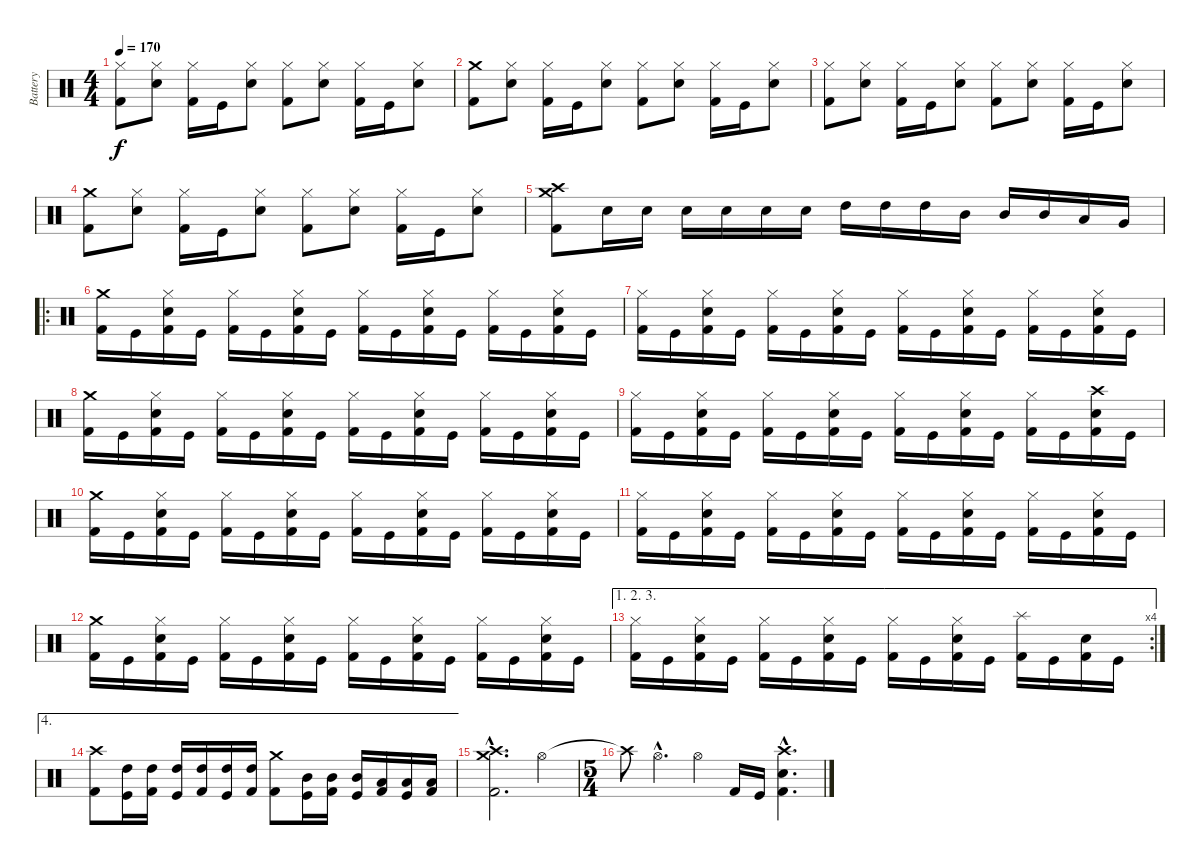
\track ("Battery" "Battery") {instrument percussion}
\staff {score}
\articulation defaults
\ts (4 4)
\tempo 170
\clef neutral
\ks c
("Hi-Hat (closed)" "Kick (hit) 2").8{dy f} ("Hi-Hat (closed)" "Snare (hit) 2").8 ("Hi-Hat (closed)" "Kick (hit) 2").16 "Kick (hit)".16 ("Hi-Hat (closed)" "Snare (hit) 2").8 ("Hi-Hat (closed)" "Kick (hit) 2").8 ("Hi-Hat (closed)" "Snare (hit) 2").8 ("Hi-Hat (closed)" "Kick (hit) 2").16 "Kick (hit)".16 ("Hi-Hat (closed)" "Snare (hit) 2").8 |
("Crash medium (hit)" "Kick (hit) 2").8 ("Hi-Hat (closed)" "Snare (hit) 2").8 ("Hi-Hat (closed)" "Kick (hit) 2").16 "Kick (hit)".16 ("Hi-Hat (closed)" "Snare (hit) 2").8 ("Hi-Hat (closed)" "Kick (hit) 2").8 ("Hi-Hat (closed)" "Snare (hit) 2").8 ("Hi-Hat (closed)" "Kick (hit) 2").16 "Kick (hit)".16 ("Hi-Hat (closed)" "Snare (hit) 2").8 |
("Hi-Hat (closed)" "Kick (hit) 2").8 ("Hi-Hat (closed)" "Snare (hit) 2").8 ("Hi-Hat (closed)" "Kick (hit) 2").16 "Kick (hit)".16 ("Hi-Hat (closed)" "Snare (hit) 2").8 ("Hi-Hat (closed)" "Kick (hit) 2").8 ("Hi-Hat (closed)" "Snare (hit) 2").8 ("Hi-Hat (closed)" "Kick (hit) 2").16 "Kick (hit)".16 ("Hi-Hat (closed)" "Snare (hit) 2").8 |
("Crash medium (hit)" "Kick (hit) 2").8 ("Hi-Hat (closed)" "Snare (hit) 2").8 ("Hi-Hat (closed)" "Kick (hit) 2").16 "Kick (hit)".16 ("Hi-Hat (closed)" "Snare (hit) 2").8 ("Hi-Hat (closed)" "Kick (hit) 2").8 ("Hi-Hat (closed)" "Snare (hit) 2").8 ("Hi-Hat (closed)" "Kick (hit) 2").16 "Kick (hit)".16 ("Hi-Hat (closed)" "Snare (hit) 2").8 |
("Crash high (hit)" "Crash medium (hit)" "Kick (hit) 2").8 "Snare (hit) 2".16 "Snare (hit) 2".16 "Snare (hit) 2".16 "Snare (hit) 2".16 "Snare (hit) 2".16 "Snare (hit) 2".16 "High Tom (hit)".16 "High Tom (hit)".16 "High Tom (hit)".16 "Mid Tom (hit)".16 "Mid Tom (hit)".16 "Mid Tom (hit)".16 "Low Tom (hit)".16 "Very Low Tom (hit)".16 |
\ro
("Crash medium (hit)" "Kick (hit) 2").16 "Kick (hit)".16 ("Hi-Hat (closed)" "Snare (hit) 2" "Kick (hit) 2").16 "Kick (hit)".16 ("Hi-Hat (closed)" "Kick (hit) 2").16 "Kick (hit)".16 ("Hi-Hat (closed)" "Snare (hit) 2" "Kick (hit) 2").16 "Kick (hit)".16 ("Hi-Hat (closed)" "Kick (hit) 2").16 "Kick (hit)".16 ("Hi-Hat (closed)" "Snare (hit) 2" "Kick (hit) 2").16 "Kick (hit)".16 ("Hi-Hat (closed)" "Kick (hit) 2").16 "Kick (hit)".16 ("Hi-Hat (closed)" "Snare (hit) 2" "Kick (hit) 2").16 "Kick (hit)".16 |
("Hi-Hat (closed)" "Kick (hit) 2").16 "Kick (hit)".16 ("Hi-Hat (closed)" "Snare (hit) 2" "Kick (hit) 2").16 "Kick (hit)".16 ("Hi-Hat (closed)" "Kick (hit) 2").16 "Kick (hit)".16 ("Hi-Hat (closed)" "Snare (hit) 2" "Kick (hit) 2").16 "Kick (hit)".16 ("Hi-Hat (closed)" "Kick (hit) 2").16 "Kick (hit)".16 ("Hi-Hat (closed)" "Snare (hit) 2" "Kick (hit) 2").16 "Kick (hit)".16 ("Hi-Hat (closed)" "Kick (hit) 2").16 "Kick (hit)".16 ("Hi-Hat (closed)" "Snare (hit) 2" "Kick (hit) 2").16 "Kick (hit)".16 |
("Crash medium (hit)" "Kick (hit) 2").16 "Kick (hit)".16 ("Hi-Hat (closed)" "Snare (hit) 2" "Kick (hit) 2").16 "Kick (hit)".16 ("Hi-Hat (closed)" "Kick (hit) 2").16 "Kick (hit)".16 ("Hi-Hat (closed)" "Snare (hit) 2" "Kick (hit) 2").16 "Kick (hit)".16 ("Hi-Hat (closed)" "Kick (hit) 2").16 "Kick (hit)".16 ("Hi-Hat (closed)" "Snare (hit) 2" "Kick (hit) 2").16 "Kick (hit)".16 ("Hi-Hat (closed)" "Kick (hit) 2").16 "Kick (hit)".16 ("Hi-Hat (closed)" "Snare (hit) 2" "Kick (hit) 2").16 "Kick (hit)".16 |
("Hi-Hat (closed)" "Kick (hit) 2").16 "Kick (hit)".16 ("Hi-Hat (closed)" "Snare (hit) 2" "Kick (hit) 2").16 "Kick (hit)".16 ("Hi-Hat (closed)" "Kick (hit) 2").16 "Kick (hit)".16 ("Hi-Hat (closed)" "Snare (hit) 2" "Kick (hit) 2").16 "Kick (hit)".16 ("Hi-Hat (closed)" "Kick (hit) 2").16 "Kick (hit)".16 ("Hi-Hat (closed)" "Snare (hit) 2" "Kick (hit) 2").16 "Kick (hit)".16 ("Hi-Hat (closed)" "Kick (hit) 2").16 "Kick (hit)".16 ("Crash high (hit)" "Snare (hit) 2" "Kick (hit) 2").16 "Kick (hit)".16 |
("Crash medium (hit)" "Kick (hit) 2").16 "Kick (hit)".16 ("Hi-Hat (closed)" "Snare (hit) 2" "Kick (hit) 2").16 "Kick (hit)".16 ("Hi-Hat (closed)" "Kick (hit) 2").16 "Kick (hit)".16 ("Hi-Hat (closed)" "Snare (hit) 2" "Kick (hit) 2").16 "Kick (hit)".16 ("Hi-Hat (closed)" "Kick (hit) 2").16 "Kick (hit)".16 ("Hi-Hat (closed)" "Snare (hit) 2" "Kick (hit) 2").16 "Kick (hit)".16 ("Hi-Hat (closed)" "Kick (hit) 2").16 "Kick (hit)".16 ("Hi-Hat (closed)" "Snare (hit) 2" "Kick (hit) 2").16 "Kick (hit)".16 |
("Hi-Hat (closed)" "Kick (hit) 2").16 "Kick (hit)".16 ("Hi-Hat (closed)" "Snare (hit) 2" "Kick (hit) 2").16 "Kick (hit)".16 ("Hi-Hat (closed)" "Kick (hit) 2").16 "Kick (hit)".16 ("Hi-Hat (closed)" "Snare (hit) 2" "Kick (hit) 2").16 "Kick (hit)".16 ("Hi-Hat (closed)" "Kick (hit) 2").16 "Kick (hit)".16 ("Hi-Hat (closed)" "Snare (hit) 2" "Kick (hit) 2").16 "Kick (hit)".16 ("Hi-Hat (closed)" "Kick (hit) 2").16 "Kick (hit)".16 ("Hi-Hat (closed)" "Snare (hit) 2" "Kick (hit) 2").16 "Kick (hit)".16 |
("Crash medium (hit)" "Kick (hit) 2").16 "Kick (hit)".16 ("Hi-Hat (closed)" "Snare (hit) 2" "Kick (hit) 2").16 "Kick (hit)".16 ("Hi-Hat (closed)" "Kick (hit) 2").16 "Kick (hit)".16 ("Hi-Hat (closed)" "Snare (hit) 2" "Kick (hit) 2").16 "Kick (hit)".16 ("Hi-Hat (closed)" "Kick (hit) 2").16 "Kick (hit)".16 ("Hi-Hat (closed)" "Snare (hit) 2" "Kick (hit) 2").16 "Kick (hit)".16 ("Hi-Hat (closed)" "Kick (hit) 2").16 "Kick (hit)".16 ("Hi-Hat (closed)" "Snare (hit) 2" "Kick (hit) 2").16 "Kick (hit)".16 |
\ae (1 2 3)
\rc 4
("Hi-Hat (closed)" "Kick (hit) 2").16 "Kick (hit)".16 ("Hi-Hat (closed)" "Snare (hit) 2" "Kick (hit) 2").16 "Kick (hit)".16 ("Hi-Hat (closed)" "Kick (hit) 2").16 "Kick (hit)".16 ("Hi-Hat (closed)" "Snare (hit) 2" "Kick (hit) 2").16 "Kick (hit)".16 ("Hi-Hat (closed)" "Kick (hit) 2").16 "Kick (hit)".16 ("Hi-Hat (closed)" "Snare (hit) 2" "Kick (hit) 2").16 "Kick (hit)".16 ("Splash (hit)" "Kick (hit) 2").16 "Kick (hit)".16 ("Snare (hit) 2" "Kick (hit) 2").16 "Kick (hit)".16 |
\ae 4
("Crash high (hit)" "Kick (hit) 2").8 ("High Tom (hit)" "Kick (hit)").16 ("High Tom (hit)" "Kick (hit) 2").16 ("High Tom (hit)" "Kick (hit)").16 ("High Tom (hit)" "Kick (hit) 2").16 ("High Tom (hit)" "Kick (hit)").16 ("High Tom (hit)" "Kick (hit) 2").16 ("Crash medium (hit)" "Kick (hit) 2").8 ("Mid Tom (hit)" "Kick (hit)").16 ("Mid Tom (hit)" "Kick (hit) 2").16 ("Mid Tom (hit)" "Kick (hit)").16 ("Low Tom (hit)" "Kick (hit) 2").16 ("Low Tom (hit)" "Kick (hit)").16 ("Low Tom (hit)" "Kick (hit) 2").16 |
("Crash high (hit)"{hac} "Crash medium (hit)"{hac} "Kick (hit) 2"{hac}).2{d} "Hi-Hat (open)".4 |
\ts (5 4)
"Crash high (hit)"{t}.8 "Hi-Hat (open)"{hac}.4{d} "Hi-Hat (open)".4 "Kick (hit) 2".16 "Kick (hit)".16 ("Crash high (hit)"{hac} "Snare (hit) 2"{hac} "Kick (hit) 2"{hac}).4{d}
